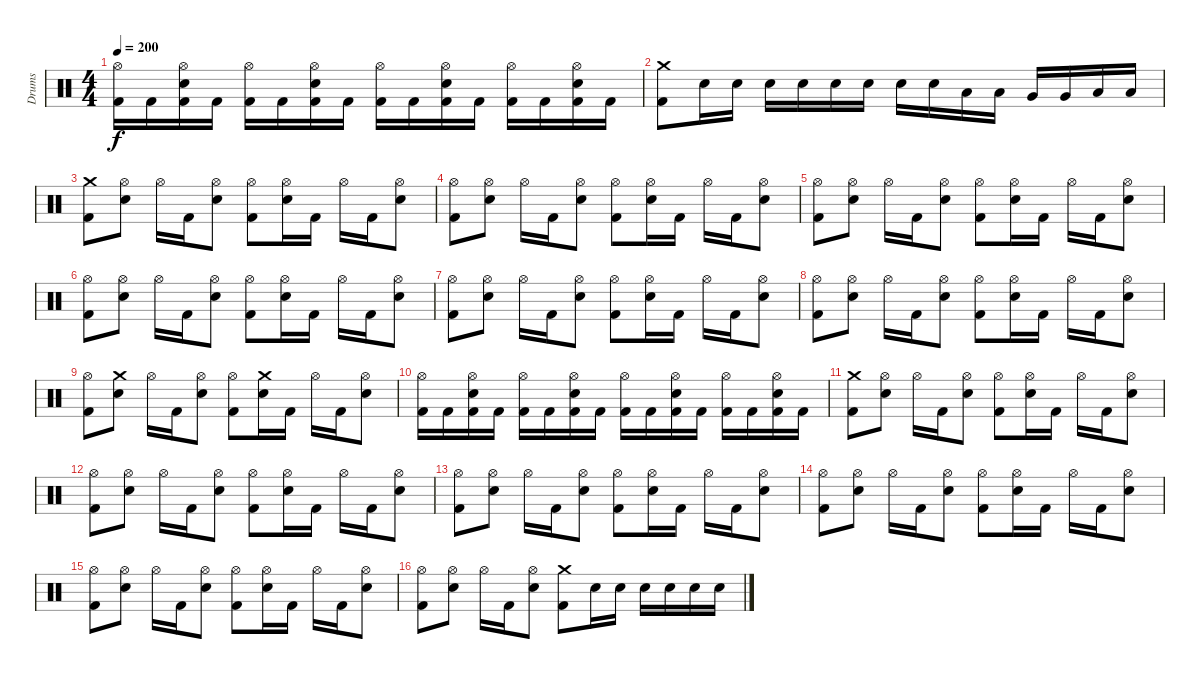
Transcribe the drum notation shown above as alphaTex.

\track ("Drums" "Drums") {instrument percussion}
\staff {score}
\articulation defaults
\ts (4 4)
\tempo 200
\clef neutral
\ks c
("Hi-Hat (open)" "Kick (hit) 2").16{dy f} "Kick (hit) 2".16 ("Hi-Hat (open)" "Snare (hit) 2" "Kick (hit) 2").16 "Kick (hit) 2".16 ("Hi-Hat (open)" "Kick (hit) 2").16 "Kick (hit) 2".16 ("Hi-Hat (open)" "Snare (hit) 2" "Kick (hit) 2").16 "Kick (hit) 2".16 ("Hi-Hat (open)" "Kick (hit) 2").16 "Kick (hit) 2".16 ("Hi-Hat (open)" "Snare (hit) 2" "Kick (hit) 2").16 "Kick (hit) 2".16 ("Hi-Hat (open)" "Kick (hit) 2").16 "Kick (hit) 2".16 ("Hi-Hat (open)" "Snare (hit) 2" "Kick (hit) 2").16 "Kick (hit) 2".16 |
("Crash medium (hit)" "Kick (hit) 2").8 "Snare (hit) 2".16 "Snare (hit) 2".16 "Snare (hit) 2".16 "Snare (hit) 2".16 "Snare (hit) 2".16 "Snare (hit) 2".16 "Snare (hit) 2".16 "Snare (hit) 2".16 "Low Tom (hit)".16 "Low Tom (hit)".16 "Very Low Tom (hit)".16 "Very Low Tom (hit)".16 "Low Floor Tom (hit)".16 "Low Floor Tom (hit)".16 |
("Crash medium (hit)" "Kick (hit) 2").8 ("Hi-Hat (open)" "Snare (hit) 2").8 "Hi-Hat (open)".16 "Kick (hit) 2".16 ("Hi-Hat (open)" "Snare (hit) 2").8 ("Hi-Hat (open)" "Kick (hit) 2").8 ("Hi-Hat (open)" "Snare (hit) 2").16 "Kick (hit) 2".16 "Hi-Hat (open)".16 "Kick (hit) 2".16 ("Hi-Hat (open)" "Snare (hit) 2").8 |
("Hi-Hat (open)" "Kick (hit) 2").8 ("Hi-Hat (open)" "Snare (hit) 2").8 "Hi-Hat (open)".16 "Kick (hit) 2".16 ("Hi-Hat (open)" "Snare (hit) 2").8 ("Hi-Hat (open)" "Kick (hit) 2").8 ("Hi-Hat (open)" "Snare (hit) 2").16 "Kick (hit) 2".16 "Hi-Hat (open)".16 "Kick (hit) 2".16 ("Hi-Hat (open)" "Snare (hit) 2").8 |
("Hi-Hat (open)" "Kick (hit) 2").8 ("Hi-Hat (open)" "Snare (hit) 2").8 "Hi-Hat (open)".16 "Kick (hit) 2".16 ("Hi-Hat (open)" "Snare (hit) 2").8 ("Hi-Hat (open)" "Kick (hit) 2").8 ("Hi-Hat (open)" "Snare (hit) 2").16 "Kick (hit) 2".16 "Hi-Hat (open)".16 "Kick (hit) 2".16 ("Hi-Hat (open)" "Snare (hit) 2").8 |
("Hi-Hat (open)" "Kick (hit) 2").8 ("Hi-Hat (open)" "Snare (hit) 2").8 "Hi-Hat (open)".16 "Kick (hit) 2".16 ("Hi-Hat (open)" "Snare (hit) 2").8 ("Hi-Hat (open)" "Kick (hit) 2").8 ("Hi-Hat (open)" "Snare (hit) 2").16 "Kick (hit) 2".16 "Hi-Hat (open)".16 "Kick (hit) 2".16 ("Hi-Hat (open)" "Snare (hit) 2").8 |
("Hi-Hat (open)" "Kick (hit) 2").8 ("Hi-Hat (open)" "Snare (hit) 2").8 "Hi-Hat (open)".16 "Kick (hit) 2".16 ("Hi-Hat (open)" "Snare (hit) 2").8 ("Hi-Hat (open)" "Kick (hit) 2").8 ("Hi-Hat (open)" "Snare (hit) 2").16 "Kick (hit) 2".16 "Hi-Hat (open)".16 "Kick (hit) 2".16 ("Hi-Hat (open)" "Snare (hit) 2").8 |
("Hi-Hat (open)" "Kick (hit) 2").8 ("Hi-Hat (open)" "Snare (hit) 2").8 "Hi-Hat (open)".16 "Kick (hit) 2".16 ("Hi-Hat (open)" "Snare (hit) 2").8 ("Hi-Hat (open)" "Kick (hit) 2").8 ("Hi-Hat (open)" "Snare (hit) 2").16 "Kick (hit) 2".16 "Hi-Hat (open)".16 "Kick (hit) 2".16 ("Hi-Hat (open)" "Snare (hit) 2").8 |
("Hi-Hat (open)" "Kick (hit) 2").8 ("Crash medium (hit)" "Snare (hit) 2").8 "Hi-Hat (open)".16 "Kick (hit) 2".16 ("Hi-Hat (open)" "Snare (hit) 2").8 ("Hi-Hat (open)" "Kick (hit) 2").8 ("Crash medium (hit)" "Snare (hit) 2").16 "Kick (hit) 2".16 "Hi-Hat (open)".16 "Kick (hit) 2".16 ("Hi-Hat (open)" "Snare (hit) 2").8 |
("Hi-Hat (open)" "Kick (hit) 2").16 "Kick (hit) 2".16 ("Hi-Hat (open)" "Snare (hit) 2" "Kick (hit) 2").16 "Kick (hit) 2".16 ("Hi-Hat (open)" "Kick (hit) 2").16 "Kick (hit) 2".16 ("Hi-Hat (open)" "Snare (hit) 2" "Kick (hit) 2").16 "Kick (hit) 2".16 ("Hi-Hat (open)" "Kick (hit) 2").16 "Kick (hit) 2".16 ("Hi-Hat (open)" "Snare (hit) 2" "Kick (hit) 2").16 "Kick (hit) 2".16 ("Hi-Hat (open)" "Kick (hit) 2").16 "Kick (hit) 2".16 ("Hi-Hat (open)" "Snare (hit) 2" "Kick (hit) 2").16 "Kick (hit) 2".16 |
("Crash medium (hit)" "Kick (hit) 2").8 ("Hi-Hat (open)" "Snare (hit) 2").8 "Hi-Hat (open)".16 "Kick (hit) 2".16 ("Hi-Hat (open)" "Snare (hit) 2").8 ("Hi-Hat (open)" "Kick (hit) 2").8 ("Hi-Hat (open)" "Snare (hit) 2").16 "Kick (hit) 2".16 "Hi-Hat (open)".16 "Kick (hit) 2".16 ("Hi-Hat (open)" "Snare (hit) 2").8 |
("Hi-Hat (open)" "Kick (hit) 2").8 ("Hi-Hat (open)" "Snare (hit) 2").8 "Hi-Hat (open)".16 "Kick (hit) 2".16 ("Hi-Hat (open)" "Snare (hit) 2").8 ("Hi-Hat (open)" "Kick (hit) 2").8 ("Hi-Hat (open)" "Snare (hit) 2").16 "Kick (hit) 2".16 "Hi-Hat (open)".16 "Kick (hit) 2".16 ("Hi-Hat (open)" "Snare (hit) 2").8 |
("Hi-Hat (open)" "Kick (hit) 2").8 ("Hi-Hat (open)" "Snare (hit) 2").8 "Hi-Hat (open)".16 "Kick (hit) 2".16 ("Hi-Hat (open)" "Snare (hit) 2").8 ("Hi-Hat (open)" "Kick (hit) 2").8 ("Hi-Hat (open)" "Snare (hit) 2").16 "Kick (hit) 2".16 "Hi-Hat (open)".16 "Kick (hit) 2".16 ("Hi-Hat (open)" "Snare (hit) 2").8 |
("Hi-Hat (open)" "Kick (hit) 2").8 ("Hi-Hat (open)" "Snare (hit) 2").8 "Hi-Hat (open)".16 "Kick (hit) 2".16 ("Hi-Hat (open)" "Snare (hit) 2").8 ("Hi-Hat (open)" "Kick (hit) 2").8 ("Hi-Hat (open)" "Snare (hit) 2").16 "Kick (hit) 2".16 "Hi-Hat (open)".16 "Kick (hit) 2".16 ("Hi-Hat (open)" "Snare (hit) 2").8 |
("Hi-Hat (open)" "Kick (hit) 2").8 ("Hi-Hat (open)" "Snare (hit) 2").8 "Hi-Hat (open)".16 "Kick (hit) 2".16 ("Hi-Hat (open)" "Snare (hit) 2").8 ("Hi-Hat (open)" "Kick (hit) 2").8 ("Hi-Hat (open)" "Snare (hit) 2").16 "Kick (hit) 2".16 "Hi-Hat (open)".16 "Kick (hit) 2".16 ("Hi-Hat (open)" "Snare (hit) 2").8 |
("Hi-Hat (open)" "Kick (hit) 2").8 ("Hi-Hat (open)" "Snare (hit) 2").8 "Hi-Hat (open)".16 "Kick (hit) 2".16 ("Hi-Hat (open)" "Snare (hit) 2").8 ("Crash medium (hit)" "Kick (hit) 2").8 "Snare (hit) 2".16 "Snare (hit) 2".16 "Snare (hit) 2".16 "Snare (hit) 2".16 "Snare (hit) 2".16 "Snare (hit) 2".16
